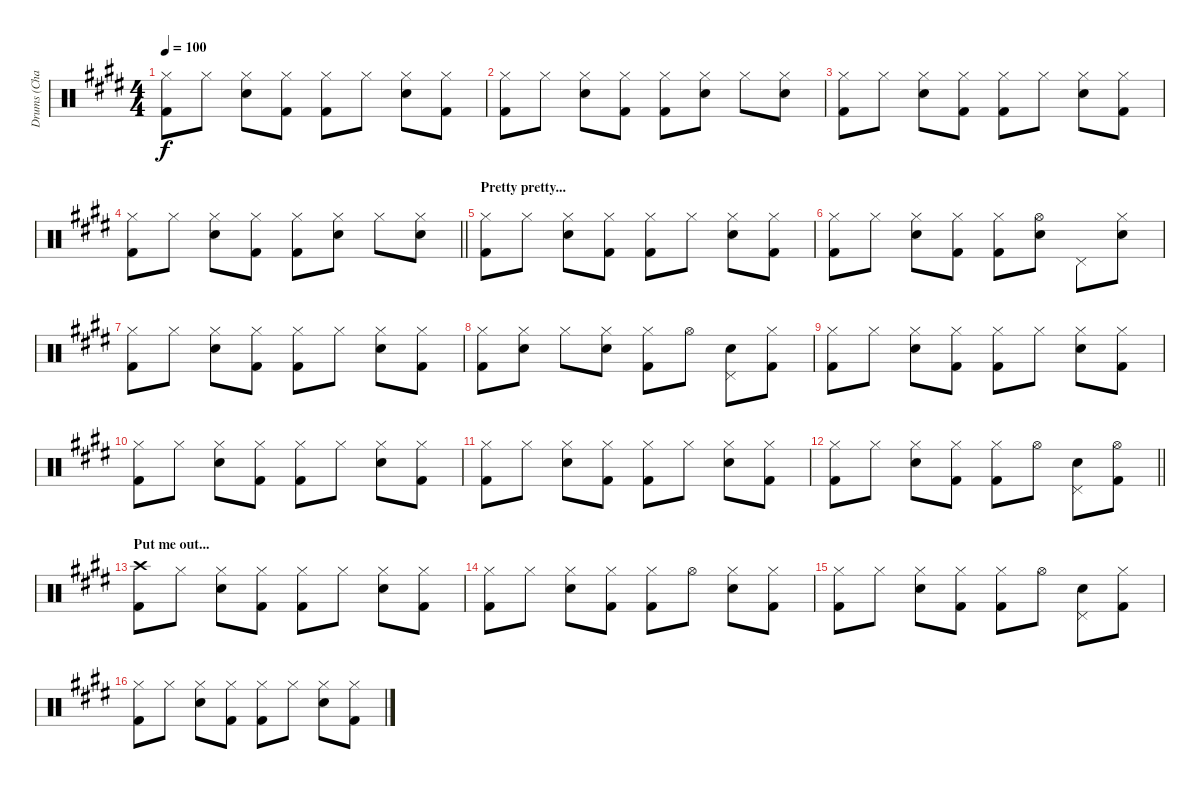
\track ("Drums (Charlie)" "Drums (Cha") {instrument percussion}
\staff {score}
\articulation defaults
\ts (4 4)
\tempo 100
\clef neutral
\ks c#minor
("Hi-Hat (closed)" "Kick (hit) 2").8{dy f} "Hi-Hat (closed)".8 ("Hi-Hat (closed)" "Snare (hit) 2").8 ("Hi-Hat (closed)" "Kick (hit) 2").8 ("Hi-Hat (closed)" "Kick (hit) 2").8 "Hi-Hat (closed)".8 ("Hi-Hat (closed)" "Snare (hit) 2").8 ("Hi-Hat (closed)" "Kick (hit) 2").8 |
("Hi-Hat (closed)" "Kick (hit) 2").8 "Hi-Hat (closed)".8 ("Hi-Hat (closed)" "Snare (hit) 2").8 ("Hi-Hat (closed)" "Kick (hit) 2").8 ("Hi-Hat (closed)" "Kick (hit) 2").8 ("Hi-Hat (closed)" "Snare (hit) 2").8 "Hi-Hat (closed)".8 ("Hi-Hat (closed)" "Snare (hit) 2").8 |
("Hi-Hat (closed)" "Kick (hit) 2").8 "Hi-Hat (closed)".8 ("Hi-Hat (closed)" "Snare (hit) 2").8 ("Hi-Hat (closed)" "Kick (hit) 2").8 ("Hi-Hat (closed)" "Kick (hit) 2").8 "Hi-Hat (closed)".8 ("Hi-Hat (closed)" "Snare (hit) 2").8 ("Hi-Hat (closed)" "Kick (hit) 2").8 |
\barLineRight lightlight
("Hi-Hat (closed)" "Kick (hit) 2").8 "Hi-Hat (closed)".8 ("Hi-Hat (closed)" "Snare (hit) 2").8 ("Hi-Hat (closed)" "Kick (hit) 2").8 ("Hi-Hat (closed)" "Kick (hit) 2").8 ("Hi-Hat (closed)" "Snare (hit) 2").8 "Hi-Hat (closed)".8 ("Hi-Hat (closed)" "Snare (hit) 2").8 |
\section ("" "Pretty pretty...")
("Hi-Hat (closed)" "Kick (hit) 2").8 "Hi-Hat (closed)".8 ("Hi-Hat (closed)" "Snare (hit) 2").8 ("Hi-Hat (closed)" "Kick (hit) 2").8 ("Hi-Hat (closed)" "Kick (hit) 2").8 "Hi-Hat (closed)".8 ("Hi-Hat (closed)" "Snare (hit) 2").8 ("Hi-Hat (closed)" "Kick (hit) 2").8 |
("Hi-Hat (closed)" "Kick (hit) 2").8 "Hi-Hat (closed)".8 ("Hi-Hat (closed)" "Snare (hit) 2").8 ("Hi-Hat (closed)" "Kick (hit) 2").8 ("Hi-Hat (closed)" "Kick (hit) 2").8 ("Hi-Hat (open)" "Snare (hit) 2").8 "Pedal Hi-Hat (hit)".8 ("Hi-Hat (closed)" "Snare (hit) 2").8 |
("Hi-Hat (closed)" "Kick (hit) 2").8 "Hi-Hat (closed)".8 ("Hi-Hat (closed)" "Snare (hit) 2").8 ("Hi-Hat (closed)" "Kick (hit) 2").8 ("Hi-Hat (closed)" "Kick (hit) 2").8 "Hi-Hat (closed)".8 ("Hi-Hat (closed)" "Snare (hit) 2").8 ("Hi-Hat (closed)" "Kick (hit) 2").8 |
("Hi-Hat (closed)" "Kick (hit) 2").8 ("Hi-Hat (closed)" "Snare (hit) 2").8 "Hi-Hat (closed)".8 ("Hi-Hat (closed)" "Snare (hit) 2").8 ("Hi-Hat (closed)" "Kick (hit) 2").8 "Hi-Hat (open)".8 ("Pedal Hi-Hat (hit)" "Snare (hit) 2").8 ("Hi-Hat (closed)" "Kick (hit) 2").8 |
\ks e
("Hi-Hat (closed)" "Kick (hit) 2").8 "Hi-Hat (closed)".8 ("Hi-Hat (closed)" "Snare (hit) 2").8 ("Hi-Hat (closed)" "Kick (hit) 2").8 ("Hi-Hat (closed)" "Kick (hit) 2").8 "Hi-Hat (closed)".8 ("Hi-Hat (closed)" "Snare (hit) 2").8 ("Hi-Hat (closed)" "Kick (hit) 2").8 |
\ks c#minor
("Hi-Hat (closed)" "Kick (hit) 2").8 "Hi-Hat (closed)".8 ("Hi-Hat (closed)" "Snare (hit) 2").8 ("Hi-Hat (closed)" "Kick (hit) 2").8 ("Hi-Hat (closed)" "Kick (hit) 2").8 "Hi-Hat (closed)".8 ("Hi-Hat (closed)" "Snare (hit) 2").8 ("Hi-Hat (closed)" "Kick (hit) 2").8 |
("Hi-Hat (closed)" "Kick (hit) 2").8 "Hi-Hat (closed)".8 ("Hi-Hat (closed)" "Snare (hit) 2").8 ("Hi-Hat (closed)" "Kick (hit) 2").8 ("Hi-Hat (closed)" "Kick (hit) 2").8 "Hi-Hat (closed)".8 ("Hi-Hat (closed)" "Snare (hit) 2").8 ("Hi-Hat (closed)" "Kick (hit) 2").8 |
\barLineRight lightlight
("Hi-Hat (closed)" "Kick (hit) 2").8 "Hi-Hat (closed)".8 ("Hi-Hat (closed)" "Snare (hit) 2").8 ("Hi-Hat (closed)" "Kick (hit) 2").8 ("Hi-Hat (closed)" "Kick (hit) 2").8 "Hi-Hat (open)".8 ("Pedal Hi-Hat (hit)" "Snare (hit) 2").8 ("Hi-Hat (open)" "Kick (hit) 2").8 |
\section ("" "Put me out...")
\ks e
("Crash high (hit)" "Kick (hit) 2").8 "Hi-Hat (closed)".8 ("Hi-Hat (closed)" "Snare (hit) 2").8 ("Hi-Hat (closed)" "Kick (hit) 2").8 ("Hi-Hat (closed)" "Kick (hit) 2").8 "Hi-Hat (closed)".8 ("Hi-Hat (closed)" "Snare (hit) 2").8 ("Hi-Hat (closed)" "Kick (hit) 2").8 |
\ks c#minor
("Hi-Hat (closed)" "Kick (hit) 2").8 "Hi-Hat (closed)".8 ("Hi-Hat (closed)" "Snare (hit) 2").8 ("Hi-Hat (closed)" "Kick (hit) 2").8 ("Hi-Hat (closed)" "Kick (hit) 2").8 "Hi-Hat (open)".8 ("Hi-Hat (closed)" "Snare (hit) 2").8 ("Hi-Hat (closed)" "Kick (hit) 2").8 |
("Hi-Hat (closed)" "Kick (hit) 2").8 "Hi-Hat (closed)".8 ("Hi-Hat (closed)" "Snare (hit) 2").8 ("Hi-Hat (closed)" "Kick (hit) 2").8 ("Hi-Hat (closed)" "Kick (hit) 2").8 "Hi-Hat (open)".8 ("Pedal Hi-Hat (hit)" "Snare (hit) 2").8 ("Hi-Hat (closed)" "Kick (hit) 2").8 |
\ks e
("Hi-Hat (closed)" "Kick (hit) 2").8 "Hi-Hat (closed)".8 ("Hi-Hat (closed)" "Snare (hit) 2").8 ("Hi-Hat (closed)" "Kick (hit) 2").8 ("Hi-Hat (closed)" "Kick (hit) 2").8 "Hi-Hat (closed)".8 ("Hi-Hat (closed)" "Snare (hit) 2").8 ("Hi-Hat (closed)" "Kick (hit) 2").8
